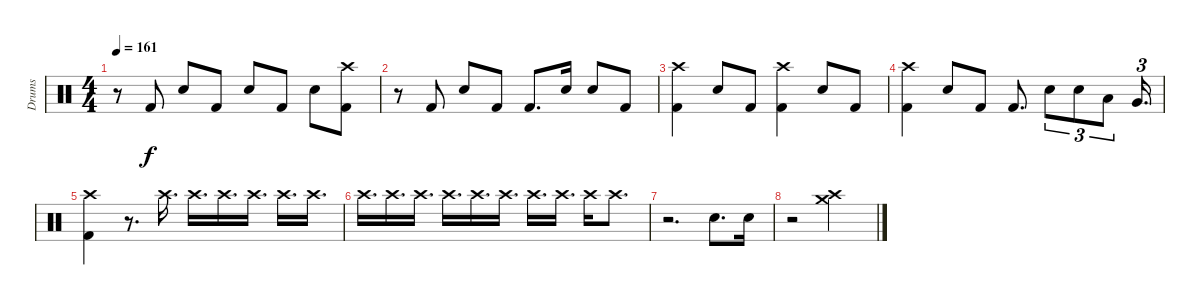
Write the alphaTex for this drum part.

\track ("Drums" "Drums") {instrument percussion}
\staff {score}
\articulation defaults
\ts (4 4)
\tempo 161
\clef neutral
\ks c
r.8{dy f} "Kick (hit) 2".8 "Electric Snare (hit)".8 "Kick (hit) 2".8 "Electric Snare (hit)".8 "Kick (hit) 2".8 "Electric Snare (hit)".8 ("Crash high (hit)" "Kick (hit) 2").8 |
r.8 "Kick (hit) 2".8 "Electric Snare (hit)".8 "Kick (hit) 2".8 "Kick (hit) 2".8{d} "Electric Snare (hit)".16 "Electric Snare (hit)".8 "Kick (hit) 2".8 |
("Crash high (hit)" "Kick (hit) 2").4 "Electric Snare (hit)".8 "Kick (hit) 2".8 ("Crash high (hit)" "Kick (hit) 2").4 "Electric Snare (hit)".8 "Kick (hit) 2".8 |
("Crash high (hit)" "Kick (hit) 2").4 "Electric Snare (hit)".8 "Kick (hit) 2".8 "Kick (hit) 2".8{d} "Electric Snare (hit)".8{tu (3 2)} "Electric Snare (hit)".8{tu (3 2)} "Low Tom (hit)".8{tu (3 2)} "Very Low Tom (hit)".16{d tu (3 2)} |
("Crash high (hit)" "Kick (hit) 2").4 r.8{d} "Crash high (hit)".16{d} "Crash high (hit)".16{d} "Crash high (hit)".16{d} "Crash high (hit)".16{d} "Crash high (hit)".16{d} "Crash high (hit)".16{d} |
"Crash high (hit)".16{d} "Crash high (hit)".16{d} "Crash high (hit)".16{d} "Crash high (hit)".16{d} "Crash high (hit)".16{d} "Crash high (hit)".16{d} "Crash high (hit)".16{d} "Crash high (hit)".16{d} "Crash high (hit)".16 "Crash high (hit)".8{d} |
r.2{d} "Electric Snare (hit)".8{d} "Electric Snare (hit)".16 |
r.2 ("Crash high (hit)" "Crash medium (hit)").2
